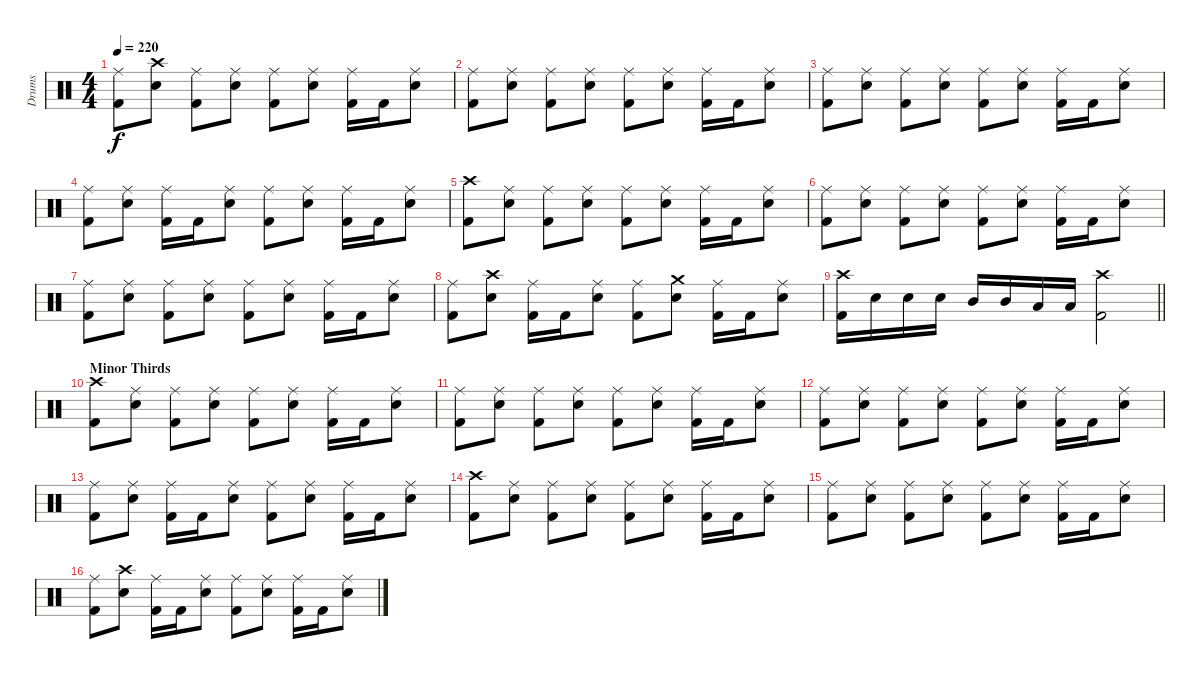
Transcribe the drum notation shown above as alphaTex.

\track ("Drums" "Drums") {instrument percussion}
\staff {score}
\articulation defaults
\ts (4 4)
\tempo 220
\clef neutral
\ks c
("Ride (middle)" "Kick (hit) 2").8{dy f} ("Crash high (hit)" "Snare (hit) 2").8 ("Ride (middle)" "Kick (hit) 2").8 ("Ride (middle)" "Snare (hit) 2").8 ("Ride (middle)" "Kick (hit) 2").8 ("Ride (middle)" "Snare (hit) 2").8 ("Ride (middle)" "Kick (hit) 2").16 "Kick (hit) 2".16 ("Ride (middle)" "Snare (hit) 2").8 |
("Ride (middle)" "Kick (hit) 2").8 ("Ride (middle)" "Snare (hit) 2").8 ("Ride (middle)" "Kick (hit) 2").8 ("Ride (middle)" "Snare (hit) 2").8 ("Ride (middle)" "Kick (hit) 2").8 ("Ride (middle)" "Snare (hit) 2").8 ("Ride (middle)" "Kick (hit) 2").16 "Kick (hit) 2".16 ("Ride (middle)" "Snare (hit) 2").8 |
("Ride (middle)" "Kick (hit) 2").8 ("Ride (middle)" "Snare (hit) 2").8 ("Ride (middle)" "Kick (hit) 2").8 ("Ride (middle)" "Snare (hit) 2").8 ("Ride (middle)" "Kick (hit) 2").8 ("Ride (middle)" "Snare (hit) 2").8 ("Ride (middle)" "Kick (hit) 2").16 "Kick (hit) 2".16 ("Ride (middle)" "Snare (hit) 2").8 |
("Ride (middle)" "Kick (hit) 2").8 ("Ride (middle)" "Snare (hit) 2").8 ("Ride (middle)" "Kick (hit) 2").16 "Kick (hit) 2".16 ("Ride (middle)" "Snare (hit) 2").8 ("Ride (middle)" "Kick (hit) 2").8 ("Ride (middle)" "Snare (hit) 2").8 ("Ride (middle)" "Kick (hit) 2").16 "Kick (hit) 2".16 ("Ride (middle)" "Snare (hit) 2").8 |
("Crash high (hit)" "Kick (hit) 2").8 ("Ride (middle)" "Snare (hit) 2").8 ("Ride (middle)" "Kick (hit) 2").8 ("Ride (middle)" "Snare (hit) 2").8 ("Ride (middle)" "Kick (hit) 2").8 ("Ride (middle)" "Snare (hit) 2").8 ("Ride (middle)" "Kick (hit) 2").16 "Kick (hit) 2".16 ("Ride (middle)" "Snare (hit) 2").8 |
("Ride (middle)" "Kick (hit) 2").8 ("Ride (middle)" "Snare (hit) 2").8 ("Ride (middle)" "Kick (hit) 2").8 ("Ride (middle)" "Snare (hit) 2").8 ("Ride (middle)" "Kick (hit) 2").8 ("Ride (middle)" "Snare (hit) 2").8 ("Ride (middle)" "Kick (hit) 2").16 "Kick (hit) 2".16 ("Ride (middle)" "Snare (hit) 2").8 |
("Ride (middle)" "Kick (hit) 2").8 ("Ride (middle)" "Snare (hit) 2").8 ("Ride (middle)" "Kick (hit) 2").8 ("Ride (middle)" "Snare (hit) 2").8 ("Ride (middle)" "Kick (hit) 2").8 ("Ride (middle)" "Snare (hit) 2").8 ("Ride (middle)" "Kick (hit) 2").16 "Kick (hit) 2".16 ("Ride (middle)" "Snare (hit) 2").8 |
("Ride (middle)" "Kick (hit) 2").8 ("Crash high (hit)" "Snare (hit) 2").8 ("Ride (middle)" "Kick (hit) 2").16 "Kick (hit) 2".16 ("Ride (middle)" "Snare (hit) 2").8 ("Ride (middle)" "Kick (hit) 2").8 ("Crash medium (hit)" "Snare (hit) 2").8 ("Ride (middle)" "Kick (hit) 2").16 "Kick (hit) 2".16 ("Ride (middle)" "Snare (hit) 2").8 |
\barLineRight lightlight
("Crash high (hit)" "Kick (hit) 2").16 "Snare (hit) 2".16 "Snare (hit) 2".16 "Snare (hit) 2".16 "Mid Tom (hit)".16 "Mid Tom (hit)".16 "Low Tom (hit)".16 "Low Tom (hit)".16 ("Crash high (hit)" "Kick (hit) 2").2 |
\section ("" "Minor Thirds")
("Crash high (hit)" "Kick (hit) 2").8 ("Ride (middle)" "Snare (hit) 2").8 ("Ride (middle)" "Kick (hit) 2").8 ("Ride (middle)" "Snare (hit) 2").8 ("Ride (middle)" "Kick (hit) 2").8 ("Ride (middle)" "Snare (hit) 2").8 ("Ride (middle)" "Kick (hit) 2").16 "Kick (hit) 2".16 ("Ride (middle)" "Snare (hit) 2").8 |
("Ride (middle)" "Kick (hit) 2").8 ("Ride (middle)" "Snare (hit) 2").8 ("Ride (middle)" "Kick (hit) 2").8 ("Ride (middle)" "Snare (hit) 2").8 ("Ride (middle)" "Kick (hit) 2").8 ("Ride (middle)" "Snare (hit) 2").8 ("Ride (middle)" "Kick (hit) 2").16 "Kick (hit) 2".16 ("Ride (middle)" "Snare (hit) 2").8 |
("Ride (middle)" "Kick (hit) 2").8 ("Ride (middle)" "Snare (hit) 2").8 ("Ride (middle)" "Kick (hit) 2").8 ("Ride (middle)" "Snare (hit) 2").8 ("Ride (middle)" "Kick (hit) 2").8 ("Ride (middle)" "Snare (hit) 2").8 ("Ride (middle)" "Kick (hit) 2").16 "Kick (hit) 2".16 ("Ride (middle)" "Snare (hit) 2").8 |
("Ride (middle)" "Kick (hit) 2").8 ("Ride (middle)" "Snare (hit) 2").8 ("Ride (middle)" "Kick (hit) 2").16 "Kick (hit) 2".16 ("Ride (middle)" "Snare (hit) 2").8 ("Ride (middle)" "Kick (hit) 2").8 ("Ride (middle)" "Snare (hit) 2").8 ("Ride (middle)" "Kick (hit) 2").16 "Kick (hit) 2".16 ("Ride (middle)" "Snare (hit) 2").8 |
("Crash high (hit)" "Kick (hit) 2").8 ("Ride (middle)" "Snare (hit) 2").8 ("Ride (middle)" "Kick (hit) 2").8 ("Ride (middle)" "Snare (hit) 2").8 ("Ride (middle)" "Kick (hit) 2").8 ("Ride (middle)" "Snare (hit) 2").8 ("Ride (middle)" "Kick (hit) 2").16 "Kick (hit) 2".16 ("Ride (middle)" "Snare (hit) 2").8 |
("Ride (middle)" "Kick (hit) 2").8 ("Ride (middle)" "Snare (hit) 2").8 ("Ride (middle)" "Kick (hit) 2").8 ("Ride (middle)" "Snare (hit) 2").8 ("Ride (middle)" "Kick (hit) 2").8 ("Ride (middle)" "Snare (hit) 2").8 ("Ride (middle)" "Kick (hit) 2").16 "Kick (hit) 2".16 ("Ride (middle)" "Snare (hit) 2").8 |
("Ride (middle)" "Kick (hit) 2").8 ("Crash high (hit)" "Snare (hit) 2").8 ("Ride (middle)" "Kick (hit) 2").16 "Kick (hit) 2".16 ("Ride (middle)" "Snare (hit) 2").8 ("Ride (middle)" "Kick (hit) 2").8 ("Ride (middle)" "Snare (hit) 2").8 ("Ride (middle)" "Kick (hit) 2").16 "Kick (hit) 2".16 ("Ride (middle)" "Snare (hit) 2").8
